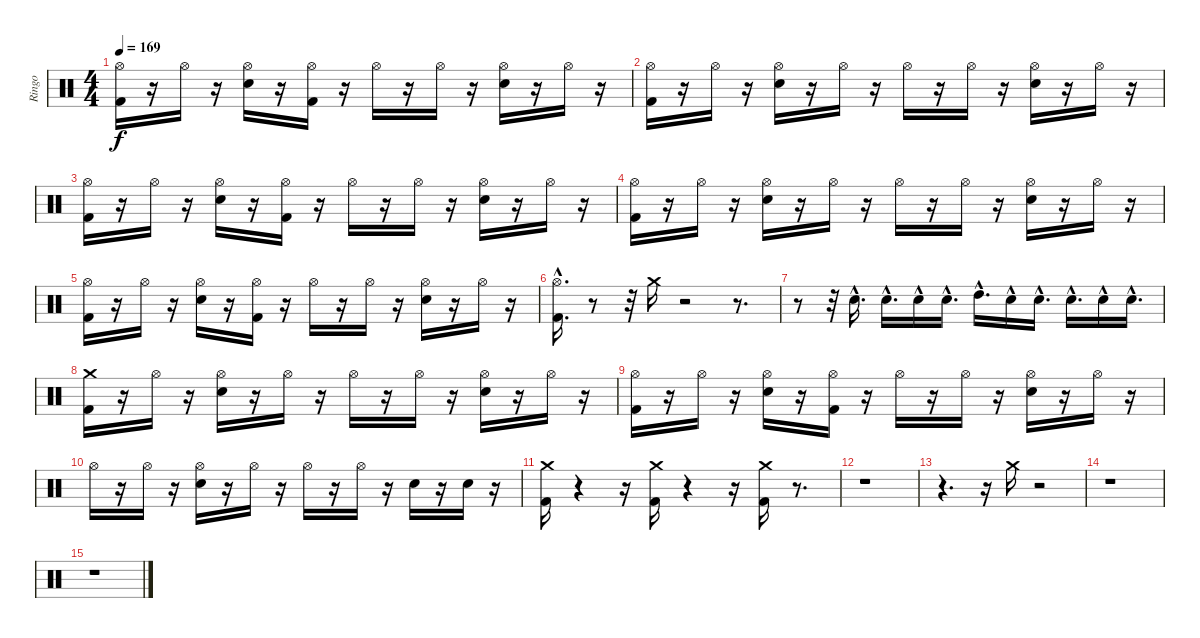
\track ("Ringo" "Ringo") {instrument percussion}
\staff {score}
\articulation defaults
\ts (4 4)
\tempo 169
\clef neutral
\ks c
("Hi-Hat (open)" "Kick (hit) 2").16{dy f} r.16 "Hi-Hat (open)".16 r.16 ("Hi-Hat (open)" "Snare (hit) 2").16 r.16 ("Hi-Hat (open)" "Kick (hit) 2").16 r.16 "Hi-Hat (open)".16 r.16 "Hi-Hat (open)".16 r.16 ("Hi-Hat (open)" "Snare (hit) 2").16 r.16 "Hi-Hat (open)".16 r.16 |
("Hi-Hat (open)" "Kick (hit) 2").16 r.16 "Hi-Hat (open)".16 r.16 ("Hi-Hat (open)" "Snare (hit) 2").16 r.16 "Hi-Hat (open)".16 r.16 "Hi-Hat (open)".16 r.16 "Hi-Hat (open)".16 r.16 ("Hi-Hat (open)" "Snare (hit) 2").16 r.16 "Hi-Hat (open)".16 r.16 |
("Hi-Hat (open)" "Kick (hit) 2").16 r.16 "Hi-Hat (open)".16 r.16 ("Hi-Hat (open)" "Snare (hit) 2").16 r.16 ("Hi-Hat (open)" "Kick (hit) 2").16 r.16 "Hi-Hat (open)".16 r.16 "Hi-Hat (open)".16 r.16 ("Hi-Hat (open)" "Snare (hit) 2").16 r.16 "Hi-Hat (open)".16 r.16 |
("Hi-Hat (open)" "Kick (hit) 2").16 r.16 "Hi-Hat (open)".16 r.16 ("Hi-Hat (open)" "Snare (hit) 2").16 r.16 "Hi-Hat (open)".16 r.16 "Hi-Hat (open)".16 r.16 "Hi-Hat (open)".16 r.16 ("Hi-Hat (open)" "Snare (hit) 2").16 r.16 "Hi-Hat (open)".16 r.16 |
("Hi-Hat (open)" "Kick (hit) 2").16 r.16 "Hi-Hat (open)".16 r.16 ("Hi-Hat (open)" "Snare (hit) 2").16 r.16 ("Hi-Hat (open)" "Kick (hit) 2").16 r.16 "Hi-Hat (open)".16 r.16 "Hi-Hat (open)".16 r.16 ("Hi-Hat (open)" "Snare (hit) 2").16 r.16 "Hi-Hat (open)".16 r.16 |
("Kick (hit) 2"{hac} "Hi-Hat (open)"{hac}).16{d} r.8 r.32 "Crash medium (hit)".16 r.2 r.8{d} |
r.8 r.32 "Snare (hit) 2"{hac}.16{d} "Snare (hit) 2"{hac}.16{d} "Snare (hit) 2"{hac}.16 "Snare (hit) 2"{hac}.16{d} "High Tom (hit)"{hac}.16{d} "Snare (hit) 2"{hac}.16 "Snare (hit) 2"{hac}.16{d} "Snare (hit) 2"{hac}.16{d} "Snare (hit) 2"{hac}.16 "Snare (hit) 2"{hac}.16{d} |
("Crash medium (hit)" "Kick (hit) 2").16 r.16 "Hi-Hat (open)".16 r.16 ("Hi-Hat (open)" "Snare (hit) 2").16 r.16 "Hi-Hat (open)".16 r.16 "Hi-Hat (open)".16 r.16 "Hi-Hat (open)".16 r.16 ("Hi-Hat (open)" "Snare (hit) 2").16 r.16 "Hi-Hat (open)".16 r.16 |
("Hi-Hat (open)" "Kick (hit) 2").16 r.16 "Hi-Hat (open)".16 r.16 ("Hi-Hat (open)" "Snare (hit) 2").16 r.16 ("Hi-Hat (open)" "Kick (hit) 2").16 r.16 "Hi-Hat (open)".16 r.16 "Hi-Hat (open)".16 r.16 ("Hi-Hat (open)" "Snare (hit) 2").16 r.16 "Hi-Hat (open)".16 r.16 |
"Hi-Hat (open)".16 r.16 "Hi-Hat (open)".16 r.16 ("Hi-Hat (open)" "Snare (hit) 2").16 r.16 "Hi-Hat (open)".16 r.16 "Hi-Hat (open)".16 r.16 "Hi-Hat (open)".16 r.16 "Snare (hit) 2".16 r.16 "Snare (hit) 2".16 r.16 |
("Crash medium (hit)" "Kick (hit) 2").16 r.4 r.16 ("Crash medium (hit)" "Kick (hit) 2").16 r.4 r.16 ("Crash medium (hit)" "Kick (hit) 2").16 r.8{d} |
r.1 |
r.4{d} r.16 "Crash medium (hit)".16 r.2 |
r.1 |
r.1
